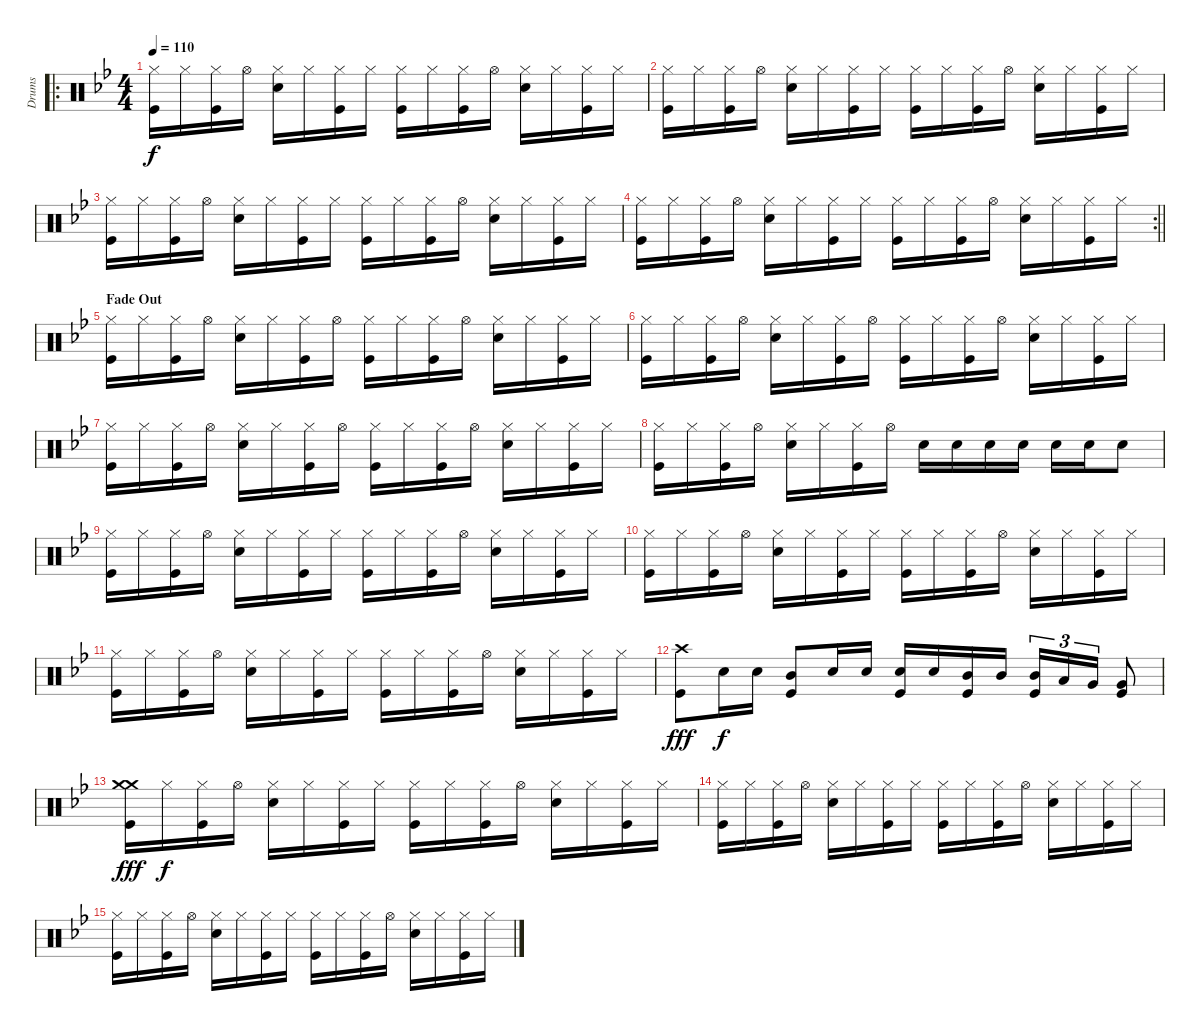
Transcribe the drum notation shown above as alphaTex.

\track ("Drums" "Drums") {instrument percussion}
\staff {score}
\articulation defaults
\ro
\ts (4 4)
\tempo 110
\clef neutral
\ks bb
("Hi-Hat (closed)" "Kick (hit)").16{dy f} "Hi-Hat (closed)".16 ("Hi-Hat (closed)" "Kick (hit)").16 "Hi-Hat (open)".16 ("Hi-Hat (closed)" "Snare (hit) 2").16 "Hi-Hat (closed)".16 ("Hi-Hat (closed)" "Kick (hit)").16 "Hi-Hat (closed)".16 ("Hi-Hat (closed)" "Kick (hit)").16 "Hi-Hat (closed)".16 ("Hi-Hat (closed)" "Kick (hit)").16 "Hi-Hat (open)".16 ("Hi-Hat (closed)" "Snare (hit) 2").16 "Hi-Hat (closed)".16 ("Hi-Hat (closed)" "Kick (hit)").16 "Hi-Hat (closed)".16 |
("Hi-Hat (closed)" "Kick (hit)").16 "Hi-Hat (closed)".16 ("Hi-Hat (closed)" "Kick (hit)").16 "Hi-Hat (open)".16 ("Hi-Hat (closed)" "Snare (hit) 2").16 "Hi-Hat (closed)".16 ("Hi-Hat (closed)" "Kick (hit)").16 "Hi-Hat (closed)".16 ("Hi-Hat (closed)" "Kick (hit)").16 "Hi-Hat (closed)".16 ("Hi-Hat (closed)" "Kick (hit)").16 "Hi-Hat (open)".16 ("Hi-Hat (closed)" "Snare (hit) 2").16 "Hi-Hat (closed)".16 ("Hi-Hat (closed)" "Kick (hit)").16 "Hi-Hat (closed)".16 |
("Hi-Hat (closed)" "Kick (hit)").16 "Hi-Hat (closed)".16 ("Hi-Hat (closed)" "Kick (hit)").16 "Hi-Hat (open)".16 ("Hi-Hat (closed)" "Snare (hit) 2").16 "Hi-Hat (closed)".16 ("Hi-Hat (closed)" "Kick (hit)").16 "Hi-Hat (closed)".16 ("Hi-Hat (closed)" "Kick (hit)").16 "Hi-Hat (closed)".16 ("Hi-Hat (closed)" "Kick (hit)").16 "Hi-Hat (open)".16 ("Hi-Hat (closed)" "Snare (hit) 2").16 "Hi-Hat (closed)".16 ("Hi-Hat (closed)" "Kick (hit)").16 "Hi-Hat (closed)".16 |
\rc 2
\barLineRight lightlight
("Hi-Hat (closed)" "Kick (hit)").16 "Hi-Hat (closed)".16 ("Hi-Hat (closed)" "Kick (hit)").16 "Hi-Hat (open)".16 ("Hi-Hat (closed)" "Snare (hit) 2").16 "Hi-Hat (closed)".16 ("Hi-Hat (closed)" "Kick (hit)").16 "Hi-Hat (closed)".16 ("Hi-Hat (closed)" "Kick (hit)").16 "Hi-Hat (closed)".16 ("Hi-Hat (closed)" "Kick (hit)").16 "Hi-Hat (open)".16 ("Hi-Hat (closed)" "Snare (hit) 2").16 "Hi-Hat (closed)".16 ("Hi-Hat (closed)" "Kick (hit)").16 "Hi-Hat (closed)".16 |
\section ("" "Fade Out")
("Hi-Hat (closed)" "Kick (hit)").16 "Hi-Hat (closed)".16 ("Hi-Hat (closed)" "Kick (hit)").16 "Hi-Hat (open)".16 ("Hi-Hat (closed)" "Snare (hit) 2").16 "Hi-Hat (closed)".16 ("Hi-Hat (closed)" "Kick (hit)").16 "Hi-Hat (open)".16 ("Hi-Hat (closed)" "Kick (hit)").16 "Hi-Hat (closed)".16 ("Hi-Hat (closed)" "Kick (hit)").16 "Hi-Hat (open)".16 ("Hi-Hat (closed)" "Snare (hit) 2").16 "Hi-Hat (closed)".16 ("Hi-Hat (closed)" "Kick (hit)").16 "Hi-Hat (closed)".16 |
("Hi-Hat (closed)" "Kick (hit)").16 "Hi-Hat (closed)".16 ("Hi-Hat (closed)" "Kick (hit)").16 "Hi-Hat (open)".16 ("Hi-Hat (closed)" "Snare (hit) 2").16 "Hi-Hat (closed)".16 ("Hi-Hat (closed)" "Kick (hit)").16 "Hi-Hat (open)".16 ("Hi-Hat (closed)" "Kick (hit)").16 "Hi-Hat (closed)".16 ("Hi-Hat (closed)" "Kick (hit)").16 "Hi-Hat (open)".16 ("Hi-Hat (closed)" "Snare (hit) 2").16 "Hi-Hat (closed)".16 ("Hi-Hat (closed)" "Kick (hit)").16 "Hi-Hat (closed)".16 |
("Hi-Hat (closed)" "Kick (hit)").16 "Hi-Hat (closed)".16 ("Hi-Hat (closed)" "Kick (hit)").16 "Hi-Hat (open)".16 ("Hi-Hat (closed)" "Snare (hit) 2").16 "Hi-Hat (closed)".16 ("Hi-Hat (closed)" "Kick (hit)").16 "Hi-Hat (open)".16 ("Hi-Hat (closed)" "Kick (hit)").16 "Hi-Hat (closed)".16 ("Hi-Hat (closed)" "Kick (hit)").16 "Hi-Hat (open)".16 ("Hi-Hat (closed)" "Snare (hit) 2").16 "Hi-Hat (closed)".16 ("Hi-Hat (closed)" "Kick (hit)").16 "Hi-Hat (closed)".16 |
("Hi-Hat (closed)" "Kick (hit)").16 "Hi-Hat (closed)".16 ("Hi-Hat (closed)" "Kick (hit)").16 "Hi-Hat (open)".16 ("Hi-Hat (closed)" "Snare (hit) 2").16 "Hi-Hat (closed)".16 ("Hi-Hat (closed)" "Kick (hit)").16 "Hi-Hat (open)".16 "Snare (hit) 2".16 "Snare (hit) 2".16 "Snare (hit) 2".16 "Snare (hit) 2".16 "Snare (hit) 2".16 "Snare (hit) 2".16 "Snare (hit) 2".8 |
("Hi-Hat (closed)" "Kick (hit)").16 "Hi-Hat (closed)".16 ("Hi-Hat (closed)" "Kick (hit)").16 "Hi-Hat (open)".16 ("Hi-Hat (closed)" "Snare (hit) 2").16 "Hi-Hat (closed)".16 ("Hi-Hat (closed)" "Kick (hit)").16 "Hi-Hat (closed)".16 ("Hi-Hat (closed)" "Kick (hit)").16 "Hi-Hat (closed)".16 ("Hi-Hat (closed)" "Kick (hit)").16 "Hi-Hat (open)".16 ("Hi-Hat (closed)" "Snare (hit) 2").16 "Hi-Hat (closed)".16 ("Hi-Hat (closed)" "Kick (hit)").16 "Hi-Hat (closed)".16 |
("Hi-Hat (closed)" "Kick (hit)").16 "Hi-Hat (closed)".16 ("Hi-Hat (closed)" "Kick (hit)").16 "Hi-Hat (open)".16 ("Hi-Hat (closed)" "Snare (hit) 2").16 "Hi-Hat (closed)".16 ("Hi-Hat (closed)" "Kick (hit)").16 "Hi-Hat (closed)".16 ("Hi-Hat (closed)" "Kick (hit)").16 "Hi-Hat (closed)".16 ("Hi-Hat (closed)" "Kick (hit)").16 "Hi-Hat (open)".16 ("Hi-Hat (closed)" "Snare (hit) 2").16 "Hi-Hat (closed)".16 ("Hi-Hat (closed)" "Kick (hit)").16 "Hi-Hat (closed)".16 |
("Hi-Hat (closed)" "Kick (hit)").16 "Hi-Hat (closed)".16 ("Hi-Hat (closed)" "Kick (hit)").16 "Hi-Hat (open)".16 ("Hi-Hat (closed)" "Snare (hit) 2").16 "Hi-Hat (closed)".16 ("Hi-Hat (closed)" "Kick (hit)").16 "Hi-Hat (closed)".16 ("Hi-Hat (closed)" "Kick (hit)").16 "Hi-Hat (closed)".16 ("Hi-Hat (closed)" "Kick (hit)").16 "Hi-Hat (open)".16 ("Hi-Hat (closed)" "Snare (hit) 2").16 "Hi-Hat (closed)".16 ("Hi-Hat (closed)" "Kick (hit)").16 "Hi-Hat (closed)".16 |
("Crash high (hit)" "Kick (hit)").8{dy fff} "Snare (hit) 2".16{dy f} "Snare (hit) 2".16 ("Mid Tom (hit)" "Kick (hit)").8 "Snare (hit) 2".16 "Snare (hit) 2".16 ("Snare (hit) 2" "Kick (hit)").16 "Snare (hit) 2".16 ("Mid Tom (hit)" "Kick (hit)").16 "Mid Tom (hit)".16 ("Mid Tom (hit)" "Kick (hit)").16{tu (3 2)} "Low Tom (hit)".16{tu (3 2)} "Very Low Tom (hit)".16{tu (3 2)} ("Very Low Tom (hit)" "Kick (hit)").8 |
("Crash medium (hit)" "Crash medium (hit)" "Kick (hit)").16{dy fff} "Hi-Hat (closed)".16{dy f} ("Hi-Hat (closed)" "Kick (hit)").16 "Hi-Hat (open)".16 ("Hi-Hat (closed)" "Snare (hit) 2").16 "Hi-Hat (closed)".16 ("Hi-Hat (closed)" "Kick (hit)").16 "Hi-Hat (closed)".16 ("Hi-Hat (closed)" "Kick (hit)").16 "Hi-Hat (closed)".16 ("Hi-Hat (closed)" "Kick (hit)").16 "Hi-Hat (open)".16 ("Hi-Hat (closed)" "Snare (hit) 2").16 "Hi-Hat (closed)".16 ("Hi-Hat (closed)" "Kick (hit)").16 "Hi-Hat (closed)".16 |
("Hi-Hat (closed)" "Kick (hit)").16 "Hi-Hat (closed)".16 ("Hi-Hat (closed)" "Kick (hit)").16 "Hi-Hat (open)".16 ("Hi-Hat (closed)" "Snare (hit) 2").16 "Hi-Hat (closed)".16 ("Hi-Hat (closed)" "Kick (hit)").16 "Hi-Hat (closed)".16 ("Hi-Hat (closed)" "Kick (hit)").16 "Hi-Hat (closed)".16 ("Hi-Hat (closed)" "Kick (hit)").16 "Hi-Hat (open)".16 ("Hi-Hat (closed)" "Snare (hit) 2").16 "Hi-Hat (closed)".16 ("Hi-Hat (closed)" "Kick (hit)").16 "Hi-Hat (closed)".16 |
("Hi-Hat (closed)" "Kick (hit)").16 "Hi-Hat (closed)".16 ("Hi-Hat (closed)" "Kick (hit)").16 "Hi-Hat (open)".16 ("Hi-Hat (closed)" "Snare (hit) 2").16 "Hi-Hat (closed)".16 ("Hi-Hat (closed)" "Kick (hit)").16 "Hi-Hat (closed)".16 ("Hi-Hat (closed)" "Kick (hit)").16 "Hi-Hat (closed)".16 ("Hi-Hat (closed)" "Kick (hit)").16 "Hi-Hat (open)".16 ("Hi-Hat (closed)" "Snare (hit) 2").16 "Hi-Hat (closed)".16 ("Hi-Hat (closed)" "Kick (hit)").16 "Hi-Hat (closed)".16
